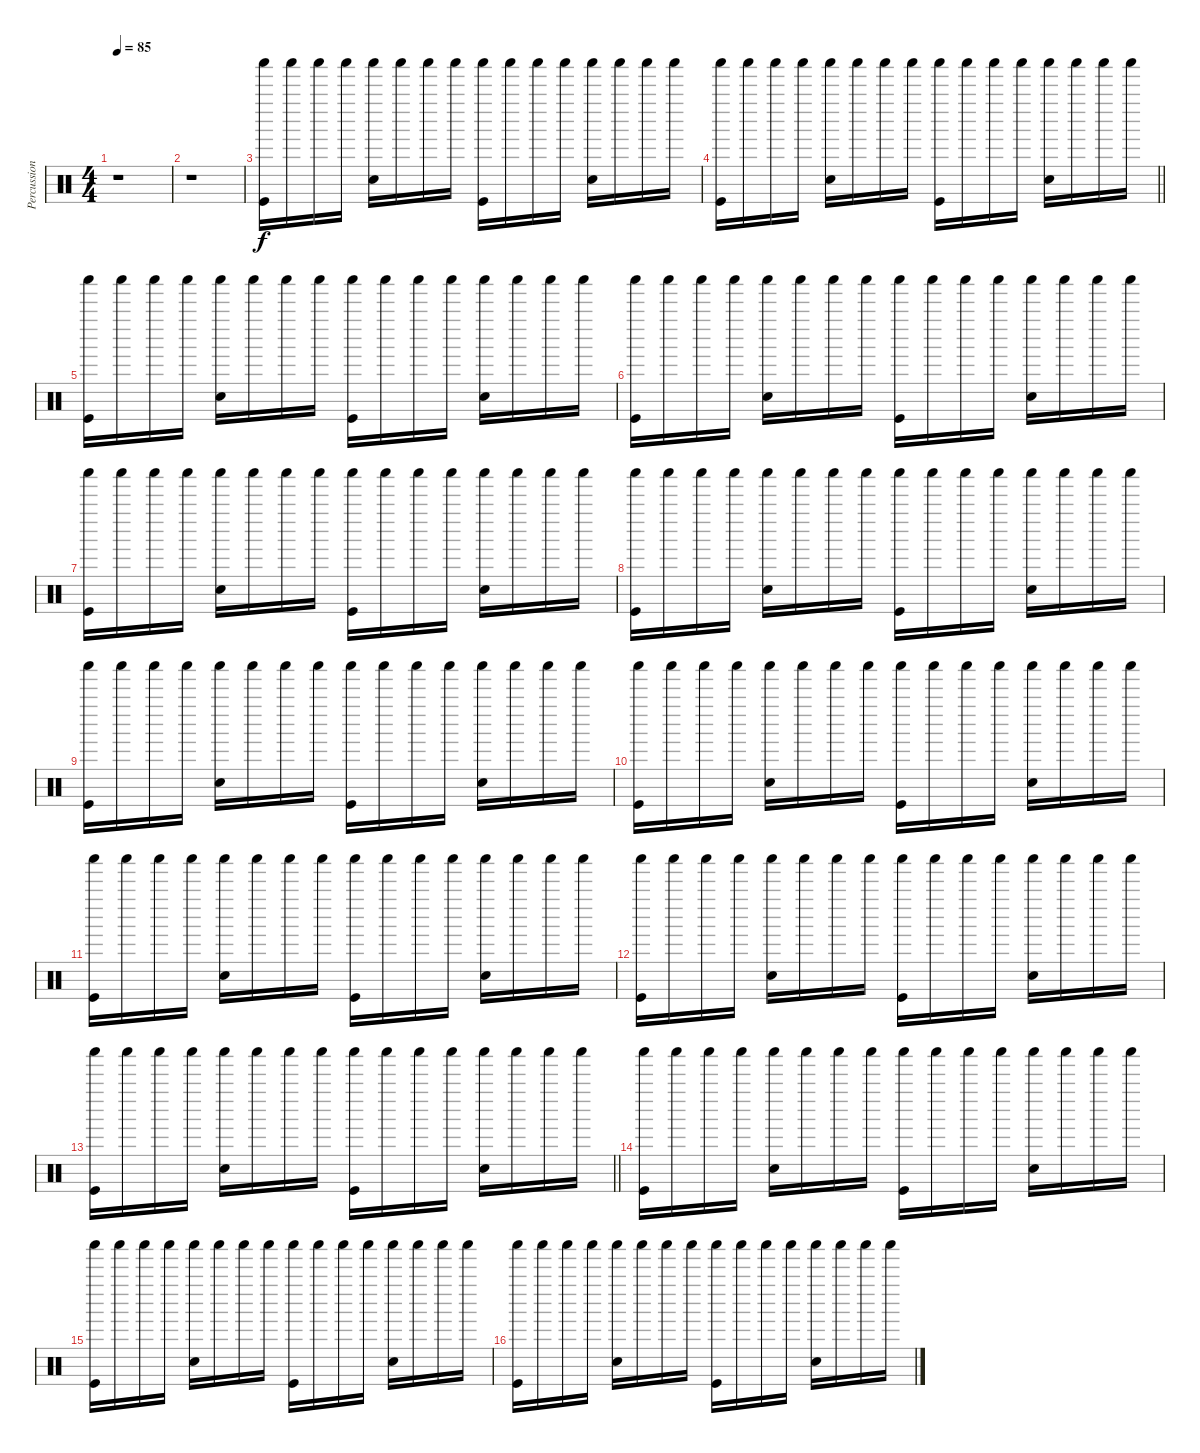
\track ("Percussion" "Percussion") {instrument percussion}
\staff {score}
\articulation defaults
\ts (4 4)
\tempo 85
\clef neutral
\ks c
r.1{dy f} |
r.1 |
("Shaker (hit)" "Kick (hit)").16 "Shaker (hit)".16 "Shaker (hit)".16 "Shaker (hit)".16 ("Shaker (hit)" "Snare (hit) 2").16 "Shaker (hit)".16 "Shaker (hit)".16 "Shaker (hit)".16 ("Shaker (hit)" "Kick (hit)").16 "Shaker (hit)".16 "Shaker (hit)".16 "Shaker (hit)".16 ("Shaker (hit)" "Snare (hit) 2").16 "Shaker (hit)".16 "Shaker (hit)".16 "Shaker (hit)".16 |
\barLineRight lightlight
("Shaker (hit)" "Kick (hit)").16 "Shaker (hit)".16 "Shaker (hit)".16 "Shaker (hit)".16 ("Shaker (hit)" "Snare (hit) 2").16 "Shaker (hit)".16 "Shaker (hit)".16 "Shaker (hit)".16 ("Shaker (hit)" "Kick (hit)").16 "Shaker (hit)".16 "Shaker (hit)".16 "Shaker (hit)".16 ("Shaker (hit)" "Snare (hit) 2").16 "Shaker (hit)".16 "Shaker (hit)".16 "Shaker (hit)".16 |
("Shaker (hit)" "Kick (hit)").16 "Shaker (hit)".16 "Shaker (hit)".16 "Shaker (hit)".16 ("Shaker (hit)" "Snare (hit) 2").16 "Shaker (hit)".16 "Shaker (hit)".16 "Shaker (hit)".16 ("Shaker (hit)" "Kick (hit)").16 "Shaker (hit)".16 "Shaker (hit)".16 "Shaker (hit)".16 ("Shaker (hit)" "Snare (hit) 2").16 "Shaker (hit)".16 "Shaker (hit)".16 "Shaker (hit)".16 |
("Shaker (hit)" "Kick (hit)").16 "Shaker (hit)".16 "Shaker (hit)".16 "Shaker (hit)".16 ("Shaker (hit)" "Snare (hit) 2").16 "Shaker (hit)".16 "Shaker (hit)".16 "Shaker (hit)".16 ("Shaker (hit)" "Kick (hit)").16 "Shaker (hit)".16 "Shaker (hit)".16 "Shaker (hit)".16 ("Shaker (hit)" "Snare (hit) 2").16 "Shaker (hit)".16 "Shaker (hit)".16 "Shaker (hit)".16 |
("Shaker (hit)" "Kick (hit)").16 "Shaker (hit)".16 "Shaker (hit)".16 "Shaker (hit)".16 ("Shaker (hit)" "Snare (hit) 2").16 "Shaker (hit)".16 "Shaker (hit)".16 "Shaker (hit)".16 ("Shaker (hit)" "Kick (hit)").16 "Shaker (hit)".16 "Shaker (hit)".16 "Shaker (hit)".16 ("Shaker (hit)" "Snare (hit) 2").16 "Shaker (hit)".16 "Shaker (hit)".16 "Shaker (hit)".16 |
("Shaker (hit)" "Kick (hit)").16 "Shaker (hit)".16 "Shaker (hit)".16 "Shaker (hit)".16 ("Shaker (hit)" "Snare (hit) 2").16 "Shaker (hit)".16 "Shaker (hit)".16 "Shaker (hit)".16 ("Shaker (hit)" "Kick (hit)").16 "Shaker (hit)".16 "Shaker (hit)".16 "Shaker (hit)".16 ("Shaker (hit)" "Snare (hit) 2").16 "Shaker (hit)".16 "Shaker (hit)".16 "Shaker (hit)".16 |
("Shaker (hit)" "Kick (hit)").16 "Shaker (hit)".16 "Shaker (hit)".16 "Shaker (hit)".16 ("Shaker (hit)" "Snare (hit) 2").16 "Shaker (hit)".16 "Shaker (hit)".16 "Shaker (hit)".16 ("Shaker (hit)" "Kick (hit)").16 "Shaker (hit)".16 "Shaker (hit)".16 "Shaker (hit)".16 ("Shaker (hit)" "Snare (hit) 2").16 "Shaker (hit)".16 "Shaker (hit)".16 "Shaker (hit)".16 |
("Shaker (hit)" "Kick (hit)").16 "Shaker (hit)".16 "Shaker (hit)".16 "Shaker (hit)".16 ("Shaker (hit)" "Snare (hit) 2").16 "Shaker (hit)".16 "Shaker (hit)".16 "Shaker (hit)".16 ("Shaker (hit)" "Kick (hit)").16 "Shaker (hit)".16 "Shaker (hit)".16 "Shaker (hit)".16 ("Shaker (hit)" "Snare (hit) 2").16 "Shaker (hit)".16 "Shaker (hit)".16 "Shaker (hit)".16 |
("Shaker (hit)" "Kick (hit)").16 "Shaker (hit)".16 "Shaker (hit)".16 "Shaker (hit)".16 ("Shaker (hit)" "Snare (hit) 2").16 "Shaker (hit)".16 "Shaker (hit)".16 "Shaker (hit)".16 ("Shaker (hit)" "Kick (hit)").16 "Shaker (hit)".16 "Shaker (hit)".16 "Shaker (hit)".16 ("Shaker (hit)" "Snare (hit) 2").16 "Shaker (hit)".16 "Shaker (hit)".16 "Shaker (hit)".16 |
("Shaker (hit)" "Kick (hit)").16 "Shaker (hit)".16 "Shaker (hit)".16 "Shaker (hit)".16 ("Shaker (hit)" "Snare (hit) 2").16 "Shaker (hit)".16 "Shaker (hit)".16 "Shaker (hit)".16 ("Shaker (hit)" "Kick (hit)").16 "Shaker (hit)".16 "Shaker (hit)".16 "Shaker (hit)".16 ("Shaker (hit)" "Snare (hit) 2").16 "Shaker (hit)".16 "Shaker (hit)".16 "Shaker (hit)".16 |
\barLineRight lightlight
("Shaker (hit)" "Kick (hit)").16 "Shaker (hit)".16 "Shaker (hit)".16 "Shaker (hit)".16 ("Shaker (hit)" "Snare (hit) 2").16 "Shaker (hit)".16 "Shaker (hit)".16 "Shaker (hit)".16 ("Shaker (hit)" "Kick (hit)").16 "Shaker (hit)".16 "Shaker (hit)".16 "Shaker (hit)".16 ("Shaker (hit)" "Snare (hit) 2").16 "Shaker (hit)".16 "Shaker (hit)".16 "Shaker (hit)".16 |
("Shaker (hit)" "Kick (hit)").16 "Shaker (hit)".16 "Shaker (hit)".16 "Shaker (hit)".16 ("Shaker (hit)" "Snare (hit) 2").16 "Shaker (hit)".16 "Shaker (hit)".16 "Shaker (hit)".16 ("Shaker (hit)" "Kick (hit)").16 "Shaker (hit)".16 "Shaker (hit)".16 "Shaker (hit)".16 ("Shaker (hit)" "Snare (hit) 2").16 "Shaker (hit)".16 "Shaker (hit)".16 "Shaker (hit)".16 |
("Shaker (hit)" "Kick (hit)").16 "Shaker (hit)".16 "Shaker (hit)".16 "Shaker (hit)".16 ("Shaker (hit)" "Snare (hit) 2").16 "Shaker (hit)".16 "Shaker (hit)".16 "Shaker (hit)".16 ("Shaker (hit)" "Kick (hit)").16 "Shaker (hit)".16 "Shaker (hit)".16 "Shaker (hit)".16 ("Shaker (hit)" "Snare (hit) 2").16 "Shaker (hit)".16 "Shaker (hit)".16 "Shaker (hit)".16 |
("Shaker (hit)" "Kick (hit)").16 "Shaker (hit)".16 "Shaker (hit)".16 "Shaker (hit)".16 ("Shaker (hit)" "Snare (hit) 2").16 "Shaker (hit)".16 "Shaker (hit)".16 "Shaker (hit)".16 ("Shaker (hit)" "Kick (hit)").16 "Shaker (hit)".16 "Shaker (hit)".16 "Shaker (hit)".16 ("Shaker (hit)" "Snare (hit) 2").16 "Shaker (hit)".16 "Shaker (hit)".16 "Shaker (hit)".16
